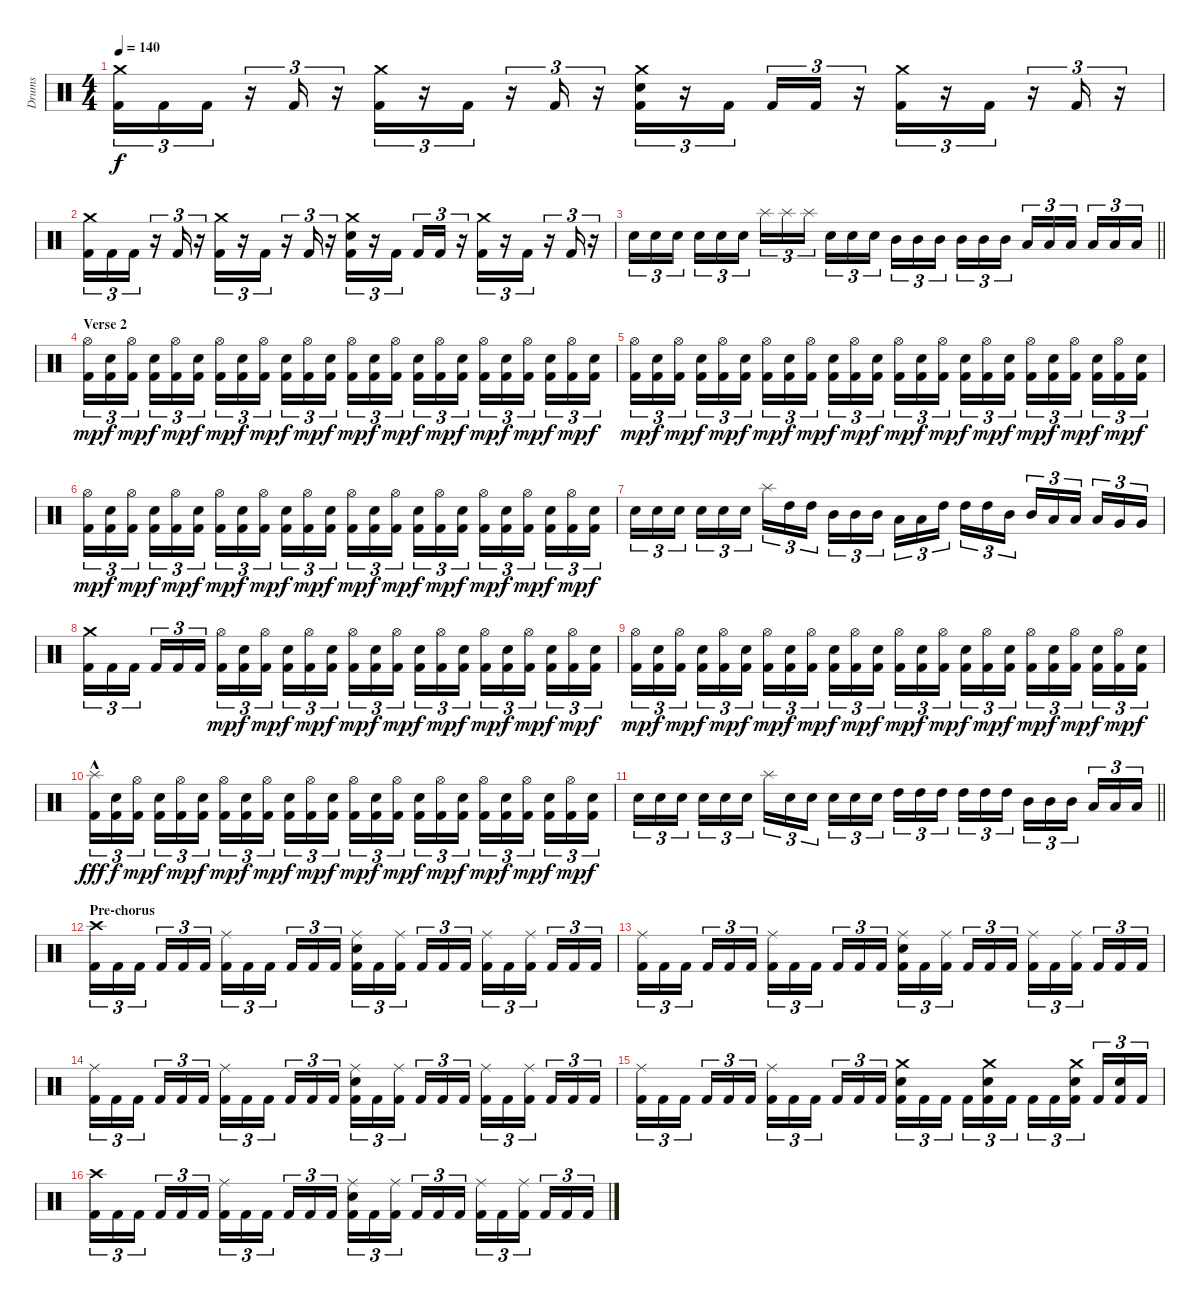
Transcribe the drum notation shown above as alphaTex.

\track ("Drums" "Drums") {instrument percussion}
\staff {score}
\articulation defaults
\ts (4 4)
\tempo 140
\clef neutral
\ks c
("Crash medium (hit)" "Kick (hit) 2").16{tu (3 2) dy f} "Kick (hit) 2".16{tu (3 2)} "Kick (hit) 2".16{tu (3 2)} r.16{tu (3 2)} "Kick (hit) 2".16{tu (3 2)} r.16{tu (3 2)} ("Crash medium (hit)" "Kick (hit) 2").16{tu (3 2)} r.16{tu (3 2)} "Kick (hit) 2".16{tu (3 2)} r.16{tu (3 2)} "Kick (hit) 2".16{tu (3 2)} r.16{tu (3 2)} ("Crash medium (hit)" "Electric Snare (hit)" "Kick (hit) 2").16{tu (3 2)} r.16{tu (3 2)} "Kick (hit) 2".16{tu (3 2) beam splitsecondary} "Kick (hit) 2".16{tu (3 2)} "Kick (hit) 2".16{tu (3 2)} r.16{tu (3 2)} ("Crash medium (hit)" "Kick (hit) 2").16{tu (3 2)} r.16{tu (3 2)} "Kick (hit) 2".16{tu (3 2)} r.16{tu (3 2)} "Kick (hit) 2".16{tu (3 2)} r.16{tu (3 2)} |
("Crash medium (hit)" "Kick (hit) 2").16{tu (3 2)} "Kick (hit) 2".16{tu (3 2)} "Kick (hit) 2".16{tu (3 2)} r.16{tu (3 2)} "Kick (hit) 2".16{tu (3 2)} r.16{tu (3 2)} ("Crash medium (hit)" "Kick (hit) 2").16{tu (3 2)} r.16{tu (3 2)} "Kick (hit) 2".16{tu (3 2)} r.16{tu (3 2)} "Kick (hit) 2".16{tu (3 2)} r.16{tu (3 2)} ("Crash medium (hit)" "Electric Snare (hit)" "Kick (hit) 2").16{tu (3 2)} r.16{tu (3 2)} "Kick (hit) 2".16{tu (3 2) beam splitsecondary} "Kick (hit) 2".16{tu (3 2)} "Kick (hit) 2".16{tu (3 2)} r.16{tu (3 2)} ("Crash medium (hit)" "Kick (hit) 2").16{tu (3 2)} r.16{tu (3 2)} "Kick (hit) 2".16{tu (3 2)} r.16{tu (3 2)} "Kick (hit) 2".16{tu (3 2)} r.16{tu (3 2)} |
\barLineRight lightlight "Electric Snare (hit)".16{tu (3 2)} "Electric Snare (hit)".16{tu (3 2)} "Electric Snare (hit)".16{tu (3 2) beam splitsecondary} "Electric Snare (hit)".16{tu (3 2)} "Electric Snare (hit)".16{tu (3 2)} "Electric Snare (hit)".16{tu (3 2)} "Splash (hit)".16{tu (3 2)} "Splash (hit)".16{tu (3 2)} "Splash (hit)".16{tu (3 2) beam splitsecondary} "Electric Snare (hit)".16{tu (3 2)} "Electric Snare (hit)".16{tu (3 2)} "Electric Snare (hit)".16{tu (3 2)} "Mid Tom (hit)".16{tu (3 2)} "Mid Tom (hit)".16{tu (3 2)} "Mid Tom (hit)".16{tu (3 2) beam splitsecondary} "Mid Tom (hit)".16{tu (3 2)} "Mid Tom (hit)".16{tu (3 2)} "Mid Tom (hit)".16{tu (3 2)} "Low Tom (hit)".16{tu (3 2)} "Low Tom (hit)".16{tu (3 2)} "Low Tom (hit)".16{tu (3 2) beam splitsecondary} "Low Tom (hit)".16{tu (3 2)} "Low Tom (hit)".16{tu (3 2)} "Low Tom (hit)".16{tu (3 2)}
|
\section ("" "Verse 2")
("Hi-Hat (open)" "Kick (hit) 2").16{tu (3 2) dy mp} ("Electric Snare (hit)" "Kick (hit) 2").16{tu (3 2) dy f} ("Hi-Hat (open)" "Kick (hit) 2").16{tu (3 2) dy mp beam splitsecondary} ("Electric Snare (hit)" "Kick (hit) 2").16{tu (3 2) dy f} ("Hi-Hat (open)" "Kick (hit) 2").16{tu (3 2) dy mp} ("Electric Snare (hit)" "Kick (hit) 2").16{tu (3 2) dy f} ("Hi-Hat (open)" "Kick (hit) 2").16{tu (3 2) dy mp} ("Electric Snare (hit)" "Kick (hit) 2").16{tu (3 2) dy f} ("Hi-Hat (open)" "Kick (hit) 2").16{tu (3 2) dy mp beam splitsecondary} ("Electric Snare (hit)" "Kick (hit) 2").16{tu (3 2) dy f} ("Hi-Hat (open)" "Kick (hit) 2").16{tu (3 2) dy mp} ("Electric Snare (hit)" "Kick (hit) 2").16{tu (3 2) dy f} ("Hi-Hat (open)" "Kick (hit) 2").16{tu (3 2) dy mp} ("Electric Snare (hit)" "Kick (hit) 2").16{tu (3 2) dy f} ("Hi-Hat (open)" "Kick (hit) 2").16{tu (3 2) dy mp beam splitsecondary} ("Electric Snare (hit)" "Kick (hit) 2").16{tu (3 2) dy f} ("Hi-Hat (open)" "Kick (hit) 2").16{tu (3 2) dy mp} ("Electric Snare (hit)" "Kick (hit) 2").16{tu (3 2) dy f} ("Hi-Hat (open)" "Kick (hit) 2").16{tu (3 2) dy mp} ("Electric Snare (hit)" "Kick (hit) 2").16{tu (3 2) dy f} ("Hi-Hat (open)" "Kick (hit) 2").16{tu (3 2) dy mp beam splitsecondary} ("Electric Snare (hit)" "Kick (hit) 2").16{tu (3 2) dy f} ("Hi-Hat (open)" "Kick (hit) 2").16{tu (3 2) dy mp} ("Electric Snare (hit)" "Kick (hit) 2").16{tu (3 2) dy f} |
("Hi-Hat (open)" "Kick (hit) 2").16{tu (3 2) dy mp} ("Electric Snare (hit)" "Kick (hit) 2").16{tu (3 2) dy f} ("Hi-Hat (open)" "Kick (hit) 2").16{tu (3 2) dy mp beam splitsecondary} ("Electric Snare (hit)" "Kick (hit) 2").16{tu (3 2) dy f} ("Hi-Hat (open)" "Kick (hit) 2").16{tu (3 2) dy mp} ("Electric Snare (hit)" "Kick (hit) 2").16{tu (3 2) dy f} ("Hi-Hat (open)" "Kick (hit) 2").16{tu (3 2) dy mp} ("Electric Snare (hit)" "Kick (hit) 2").16{tu (3 2) dy f} ("Hi-Hat (open)" "Kick (hit) 2").16{tu (3 2) dy mp beam splitsecondary} ("Electric Snare (hit)" "Kick (hit) 2").16{tu (3 2) dy f} ("Hi-Hat (open)" "Kick (hit) 2").16{tu (3 2) dy mp} ("Electric Snare (hit)" "Kick (hit) 2").16{tu (3 2) dy f} ("Hi-Hat (open)" "Kick (hit) 2").16{tu (3 2) dy mp} ("Electric Snare (hit)" "Kick (hit) 2").16{tu (3 2) dy f} ("Hi-Hat (open)" "Kick (hit) 2").16{tu (3 2) dy mp beam splitsecondary} ("Electric Snare (hit)" "Kick (hit) 2").16{tu (3 2) dy f} ("Hi-Hat (open)" "Kick (hit) 2").16{tu (3 2) dy mp} ("Electric Snare (hit)" "Kick (hit) 2").16{tu (3 2) dy f} ("Hi-Hat (open)" "Kick (hit) 2").16{tu (3 2) dy mp} ("Electric Snare (hit)" "Kick (hit) 2").16{tu (3 2) dy f} ("Hi-Hat (open)" "Kick (hit) 2").16{tu (3 2) dy mp beam splitsecondary} ("Electric Snare (hit)" "Kick (hit) 2").16{tu (3 2) dy f} ("Hi-Hat (open)" "Kick (hit) 2").16{tu (3 2) dy mp} ("Electric Snare (hit)" "Kick (hit) 2").16{tu (3 2) dy f} |
("Hi-Hat (open)" "Kick (hit) 2").16{tu (3 2) dy mp} ("Electric Snare (hit)" "Kick (hit) 2").16{tu (3 2) dy f} ("Hi-Hat (open)" "Kick (hit) 2").16{tu (3 2) dy mp beam splitsecondary} ("Electric Snare (hit)" "Kick (hit) 2").16{tu (3 2) dy f} ("Hi-Hat (open)" "Kick (hit) 2").16{tu (3 2) dy mp} ("Electric Snare (hit)" "Kick (hit) 2").16{tu (3 2) dy f} ("Hi-Hat (open)" "Kick (hit) 2").16{tu (3 2) dy mp} ("Electric Snare (hit)" "Kick (hit) 2").16{tu (3 2) dy f} ("Hi-Hat (open)" "Kick (hit) 2").16{tu (3 2) dy mp beam splitsecondary} ("Electric Snare (hit)" "Kick (hit) 2").16{tu (3 2) dy f} ("Hi-Hat (open)" "Kick (hit) 2").16{tu (3 2) dy mp} ("Electric Snare (hit)" "Kick (hit) 2").16{tu (3 2) dy f} ("Hi-Hat (open)" "Kick (hit) 2").16{tu (3 2) dy mp} ("Electric Snare (hit)" "Kick (hit) 2").16{tu (3 2) dy f} ("Hi-Hat (open)" "Kick (hit) 2").16{tu (3 2) dy mp beam splitsecondary} ("Electric Snare (hit)" "Kick (hit) 2").16{tu (3 2) dy f} ("Hi-Hat (open)" "Kick (hit) 2").16{tu (3 2) dy mp} ("Electric Snare (hit)" "Kick (hit) 2").16{tu (3 2) dy f} ("Hi-Hat (open)" "Kick (hit) 2").16{tu (3 2) dy mp} ("Electric Snare (hit)" "Kick (hit) 2").16{tu (3 2) dy f} ("Hi-Hat (open)" "Kick (hit) 2").16{tu (3 2) dy mp beam splitsecondary} ("Electric Snare (hit)" "Kick (hit) 2").16{tu (3 2) dy f} ("Hi-Hat (open)" "Kick (hit) 2").16{tu (3 2) dy mp} ("Electric Snare (hit)" "Kick (hit) 2").16{tu (3 2) dy f} |
"Electric Snare (hit)".16{tu (3 2)} "Electric Snare (hit)".16{tu (3 2)} "Electric Snare (hit)".16{tu (3 2) beam splitsecondary} "Electric Snare (hit)".16{tu (3 2)} "Electric Snare (hit)".16{tu (3 2)} "Electric Snare (hit)".16{tu (3 2)} "Splash (hit)".16{tu (3 2)} "High Tom (hit)".16{tu (3 2)} "High Tom (hit)".16{tu (3 2) beam splitsecondary} "Mid Tom (hit)".16{tu (3 2)} "Mid Tom (hit)".16{tu (3 2)} "Mid Tom (hit)".16{tu (3 2)} "Low Tom (hit)".16{tu (3 2)} "Low Tom (hit)".16{tu (3 2)} "High Tom (hit)".16{tu (3 2) beam splitsecondary} "High Tom (hit)".16{tu (3 2)} "High Tom (hit)".16{tu (3 2)} "Mid Tom (hit)".16{tu (3 2)} "Mid Tom (hit)".16{tu (3 2)} "Low Tom (hit)".16{tu (3 2)} "Low Tom (hit)".16{tu (3 2) beam splitsecondary} "Low Tom (hit)".16{tu (3 2)} "Very Low Tom (hit)".16{tu (3 2)} "Very Low Tom (hit)".16{tu (3 2)} |
("Crash medium (hit)" "Kick (hit) 2").16{tu (3 2)} "Kick (hit) 2".16{tu (3 2)} "Kick (hit) 2".16{tu (3 2) beam splitsecondary} "Kick (hit) 2".16{tu (3 2)} "Kick (hit) 2".16{tu (3 2)} "Kick (hit) 2".16{tu (3 2)} ("Hi-Hat (open)" "Kick (hit) 2").16{tu (3 2) dy mp} ("Electric Snare (hit)" "Kick (hit) 2").16{tu (3 2) dy f} ("Hi-Hat (open)" "Kick (hit) 2").16{tu (3 2) dy mp beam splitsecondary} ("Electric Snare (hit)" "Kick (hit) 2").16{tu (3 2) dy f} ("Hi-Hat (open)" "Kick (hit) 2").16{tu (3 2) dy mp} ("Electric Snare (hit)" "Kick (hit) 2").16{tu (3 2) dy f} ("Hi-Hat (open)" "Kick (hit) 2").16{tu (3 2) dy mp} ("Electric Snare (hit)" "Kick (hit) 2").16{tu (3 2) dy f} ("Hi-Hat (open)" "Kick (hit) 2").16{tu (3 2) dy mp beam splitsecondary} ("Electric Snare (hit)" "Kick (hit) 2").16{tu (3 2) dy f} ("Hi-Hat (open)" "Kick (hit) 2").16{tu (3 2) dy mp} ("Electric Snare (hit)" "Kick (hit) 2").16{tu (3 2) dy f} ("Hi-Hat (open)" "Kick (hit) 2").16{tu (3 2) dy mp} ("Electric Snare (hit)" "Kick (hit) 2").16{tu (3 2) dy f} ("Hi-Hat (open)" "Kick (hit) 2").16{tu (3 2) dy mp beam splitsecondary} ("Electric Snare (hit)" "Kick (hit) 2").16{tu (3 2) dy f} ("Hi-Hat (open)" "Kick (hit) 2").16{tu (3 2) dy mp} ("Electric Snare (hit)" "Kick (hit) 2").16{tu (3 2) dy f} |
("Hi-Hat (open)" "Kick (hit) 2").16{tu (3 2) dy mp} ("Electric Snare (hit)" "Kick (hit) 2").16{tu (3 2) dy f} ("Hi-Hat (open)" "Kick (hit) 2").16{tu (3 2) dy mp beam splitsecondary} ("Electric Snare (hit)" "Kick (hit) 2").16{tu (3 2) dy f} ("Hi-Hat (open)" "Kick (hit) 2").16{tu (3 2) dy mp} ("Electric Snare (hit)" "Kick (hit) 2").16{tu (3 2) dy f} ("Hi-Hat (open)" "Kick (hit) 2").16{tu (3 2) dy mp} ("Electric Snare (hit)" "Kick (hit) 2").16{tu (3 2) dy f} ("Hi-Hat (open)" "Kick (hit) 2").16{tu (3 2) dy mp beam splitsecondary} ("Electric Snare (hit)" "Kick (hit) 2").16{tu (3 2) dy f} ("Hi-Hat (open)" "Kick (hit) 2").16{tu (3 2) dy mp} ("Electric Snare (hit)" "Kick (hit) 2").16{tu (3 2) dy f} ("Hi-Hat (open)" "Kick (hit) 2").16{tu (3 2) dy mp} ("Electric Snare (hit)" "Kick (hit) 2").16{tu (3 2) dy f} ("Hi-Hat (open)" "Kick (hit) 2").16{tu (3 2) dy mp beam splitsecondary} ("Electric Snare (hit)" "Kick (hit) 2").16{tu (3 2) dy f} ("Hi-Hat (open)" "Kick (hit) 2").16{tu (3 2) dy mp} ("Electric Snare (hit)" "Kick (hit) 2").16{tu (3 2) dy f} ("Hi-Hat (open)" "Kick (hit) 2").16{tu (3 2) dy mp} ("Electric Snare (hit)" "Kick (hit) 2").16{tu (3 2) dy f} ("Hi-Hat (open)" "Kick (hit) 2").16{tu (3 2) dy mp beam splitsecondary} ("Electric Snare (hit)" "Kick (hit) 2").16{tu (3 2) dy f} ("Hi-Hat (open)" "Kick (hit) 2").16{tu (3 2) dy mp} ("Electric Snare (hit)" "Kick (hit) 2").16{tu (3 2) dy f} |
("Splash (hit)"{hac} "Kick (hit) 2").16{tu (3 2) dy fff} ("Electric Snare (hit)" "Kick (hit) 2").16{tu (3 2) dy f} ("Hi-Hat (open)" "Kick (hit) 2").16{tu (3 2) dy mp beam splitsecondary} ("Electric Snare (hit)" "Kick (hit) 2").16{tu (3 2) dy f} ("Hi-Hat (open)" "Kick (hit) 2").16{tu (3 2) dy mp} ("Electric Snare (hit)" "Kick (hit) 2").16{tu (3 2) dy f} ("Hi-Hat (open)" "Kick (hit) 2").16{tu (3 2) dy mp} ("Electric Snare (hit)" "Kick (hit) 2").16{tu (3 2) dy f} ("Hi-Hat (open)" "Kick (hit) 2").16{tu (3 2) dy mp beam splitsecondary} ("Electric Snare (hit)" "Kick (hit) 2").16{tu (3 2) dy f} ("Hi-Hat (open)" "Kick (hit) 2").16{tu (3 2) dy mp} ("Electric Snare (hit)" "Kick (hit) 2").16{tu (3 2) dy f} ("Hi-Hat (open)" "Kick (hit) 2").16{tu (3 2) dy mp} ("Electric Snare (hit)" "Kick (hit) 2").16{tu (3 2) dy f} ("Hi-Hat (open)" "Kick (hit) 2").16{tu (3 2) dy mp beam splitsecondary} ("Electric Snare (hit)" "Kick (hit) 2").16{tu (3 2) dy f} ("Hi-Hat (open)" "Kick (hit) 2").16{tu (3 2) dy mp} ("Electric Snare (hit)" "Kick (hit) 2").16{tu (3 2) dy f} ("Hi-Hat (open)" "Kick (hit) 2").16{tu (3 2) dy mp} ("Electric Snare (hit)" "Kick (hit) 2").16{tu (3 2) dy f} ("Hi-Hat (open)" "Kick (hit) 2").16{tu (3 2) dy mp beam splitsecondary} ("Electric Snare (hit)" "Kick (hit) 2").16{tu (3 2) dy f} ("Hi-Hat (open)" "Kick (hit) 2").16{tu (3 2) dy mp} ("Electric Snare (hit)" "Kick (hit) 2").16{tu (3 2) dy f} |
\barLineRight lightlight "Electric Snare (hit)".16{tu (3 2)} "Electric Snare (hit)".16{tu (3 2)} "Electric Snare (hit)".16{tu (3 2) beam splitsecondary} "Electric Snare (hit)".16{tu (3 2)} "Electric Snare (hit)".16{tu (3 2)} "Electric Snare (hit)".16{tu (3 2)} "Splash (hit)".16{tu (3 2)} "Electric Snare (hit)".16{tu (3 2)} "Electric Snare (hit)".16{tu (3 2) beam splitsecondary} "Electric Snare (hit)".16{tu (3 2)} "Electric Snare (hit)".16{tu (3 2)} "Electric Snare (hit)".16{tu (3 2)} "High Tom (hit)".16{tu (3 2)} "High Tom (hit)".16{tu (3 2)} "High Tom (hit)".16{tu (3 2) beam splitsecondary} "High Tom (hit)".16{tu (3 2)} "High Tom (hit)".16{tu (3 2)} "High Tom (hit)".16{tu (3 2)} "Mid Tom (hit)".16{tu (3 2)} "Mid Tom (hit)".16{tu (3 2)} "Mid Tom (hit)".16{tu (3 2) beam splitsecondary} "Low Tom (hit)".16{tu (3 2)} "Low Tom (hit)".16{tu (3 2)} "Low Tom (hit)".16{tu (3 2)}
|
\section ("" "Pre-chorus")
("Crash high (hit)" "Kick (hit) 2").16{tu (3 2)} "Kick (hit) 2".16{tu (3 2)} "Kick (hit) 2".16{tu (3 2) beam splitsecondary} "Kick (hit) 2".16{tu (3 2)} "Kick (hit) 2".16{tu (3 2)} "Kick (hit) 2".16{tu (3 2)} ("Ride (middle)" "Kick (hit) 2").16{tu (3 2)} "Kick (hit) 2".16{tu (3 2)} "Kick (hit) 2".16{tu (3 2) beam splitsecondary} "Kick (hit) 2".16{tu (3 2)} "Kick (hit) 2".16{tu (3 2)} "Kick (hit) 2".16{tu (3 2)} ("Ride (middle)" "Electric Snare (hit)" "Kick (hit) 2").16{tu (3 2)} "Kick (hit) 2".16{tu (3 2)} ("Ride (middle)" "Kick (hit) 2").16{tu (3 2) beam splitsecondary} "Kick (hit) 2".16{tu (3 2)} "Kick (hit) 2".16{tu (3 2)} "Kick (hit) 2".16{tu (3 2)} ("Ride (middle)" "Kick (hit) 2").16{tu (3 2)} "Kick (hit) 2".16{tu (3 2)} ("Ride (middle)" "Kick (hit) 2").16{tu (3 2) beam splitsecondary} "Kick (hit) 2".16{tu (3 2)} "Kick (hit) 2".16{tu (3 2)} "Kick (hit) 2".16{tu (3 2)} |
("Ride (middle)" "Kick (hit) 2").16{tu (3 2)} "Kick (hit) 2".16{tu (3 2)} "Kick (hit) 2".16{tu (3 2) beam splitsecondary} "Kick (hit) 2".16{tu (3 2)} "Kick (hit) 2".16{tu (3 2)} "Kick (hit) 2".16{tu (3 2)} ("Ride (middle)" "Kick (hit) 2").16{tu (3 2)} "Kick (hit) 2".16{tu (3 2)} "Kick (hit) 2".16{tu (3 2) beam splitsecondary} "Kick (hit) 2".16{tu (3 2)} "Kick (hit) 2".16{tu (3 2)} "Kick (hit) 2".16{tu (3 2)} ("Ride (middle)" "Electric Snare (hit)" "Kick (hit) 2").16{tu (3 2)} "Kick (hit) 2".16{tu (3 2)} ("Ride (middle)" "Kick (hit) 2").16{tu (3 2) beam splitsecondary} "Kick (hit) 2".16{tu (3 2)} "Kick (hit) 2".16{tu (3 2)} "Kick (hit) 2".16{tu (3 2)} ("Ride (middle)" "Kick (hit) 2").16{tu (3 2)} "Kick (hit) 2".16{tu (3 2)} ("Ride (middle)" "Kick (hit) 2").16{tu (3 2) beam splitsecondary} "Kick (hit) 2".16{tu (3 2)} "Kick (hit) 2".16{tu (3 2)} "Kick (hit) 2".16{tu (3 2)} |
("Ride (middle)" "Kick (hit) 2").16{tu (3 2)} "Kick (hit) 2".16{tu (3 2)} "Kick (hit) 2".16{tu (3 2) beam splitsecondary} "Kick (hit) 2".16{tu (3 2)} "Kick (hit) 2".16{tu (3 2)} "Kick (hit) 2".16{tu (3 2)} ("Ride (middle)" "Kick (hit) 2").16{tu (3 2)} "Kick (hit) 2".16{tu (3 2)} "Kick (hit) 2".16{tu (3 2) beam splitsecondary} "Kick (hit) 2".16{tu (3 2)} "Kick (hit) 2".16{tu (3 2)} "Kick (hit) 2".16{tu (3 2)} ("Ride (middle)" "Electric Snare (hit)" "Kick (hit) 2").16{tu (3 2)} "Kick (hit) 2".16{tu (3 2)} ("Ride (middle)" "Kick (hit) 2").16{tu (3 2) beam splitsecondary} "Kick (hit) 2".16{tu (3 2)} "Kick (hit) 2".16{tu (3 2)} "Kick (hit) 2".16{tu (3 2)} ("Ride (middle)" "Kick (hit) 2").16{tu (3 2)} "Kick (hit) 2".16{tu (3 2)} ("Ride (middle)" "Kick (hit) 2").16{tu (3 2) beam splitsecondary} "Kick (hit) 2".16{tu (3 2)} "Kick (hit) 2".16{tu (3 2)} "Kick (hit) 2".16{tu (3 2)} |
("Ride (middle)" "Kick (hit) 2").16{tu (3 2)} "Kick (hit) 2".16{tu (3 2)} "Kick (hit) 2".16{tu (3 2) beam splitsecondary} "Kick (hit) 2".16{tu (3 2)} "Kick (hit) 2".16{tu (3 2)} "Kick (hit) 2".16{tu (3 2)} ("Ride (middle)" "Kick (hit) 2").16{tu (3 2)} "Kick (hit) 2".16{tu (3 2)} "Kick (hit) 2".16{tu (3 2) beam splitsecondary} "Kick (hit) 2".16{tu (3 2)} "Kick (hit) 2".16{tu (3 2)} "Kick (hit) 2".16{tu (3 2)} ("Crash medium (hit)" "Electric Snare (hit)" "Kick (hit) 2").16{tu (3 2)} "Kick (hit) 2".16{tu (3 2)} "Kick (hit) 2".16{tu (3 2) beam splitsecondary} "Kick (hit) 2".16{tu (3 2)} ("Crash medium (hit)" "Electric Snare (hit)" "Kick (hit) 2").16{tu (3 2)} "Kick (hit) 2".16{tu (3 2)} "Kick (hit) 2".16{tu (3 2)} "Kick (hit) 2".16{tu (3 2)} ("Crash medium (hit)" "Electric Snare (hit)" "Kick (hit) 2").16{tu (3 2) beam splitsecondary} "Kick (hit) 2".16{tu (3 2)} ("Electric Snare (hit)" "Kick (hit) 2").16{tu (3 2)} "Kick (hit) 2".16{tu (3 2)} |
("Crash high (hit)" "Kick (hit) 2").16{tu (3 2)} "Kick (hit) 2".16{tu (3 2)} "Kick (hit) 2".16{tu (3 2) beam splitsecondary} "Kick (hit) 2".16{tu (3 2)} "Kick (hit) 2".16{tu (3 2)} "Kick (hit) 2".16{tu (3 2)} ("Ride (middle)" "Kick (hit) 2").16{tu (3 2)} "Kick (hit) 2".16{tu (3 2)} "Kick (hit) 2".16{tu (3 2) beam splitsecondary} "Kick (hit) 2".16{tu (3 2)} "Kick (hit) 2".16{tu (3 2)} "Kick (hit) 2".16{tu (3 2)} ("Ride (middle)" "Electric Snare (hit)" "Kick (hit) 2").16{tu (3 2)} "Kick (hit) 2".16{tu (3 2)} ("Ride (middle)" "Kick (hit) 2").16{tu (3 2) beam splitsecondary} "Kick (hit) 2".16{tu (3 2)} "Kick (hit) 2".16{tu (3 2)} "Kick (hit) 2".16{tu (3 2)} ("Ride (middle)" "Kick (hit) 2").16{tu (3 2)} "Kick (hit) 2".16{tu (3 2)} ("Ride (middle)" "Kick (hit) 2").16{tu (3 2) beam splitsecondary} "Kick (hit) 2".16{tu (3 2)} "Kick (hit) 2".16{tu (3 2)} "Kick (hit) 2".16{tu (3 2)}
